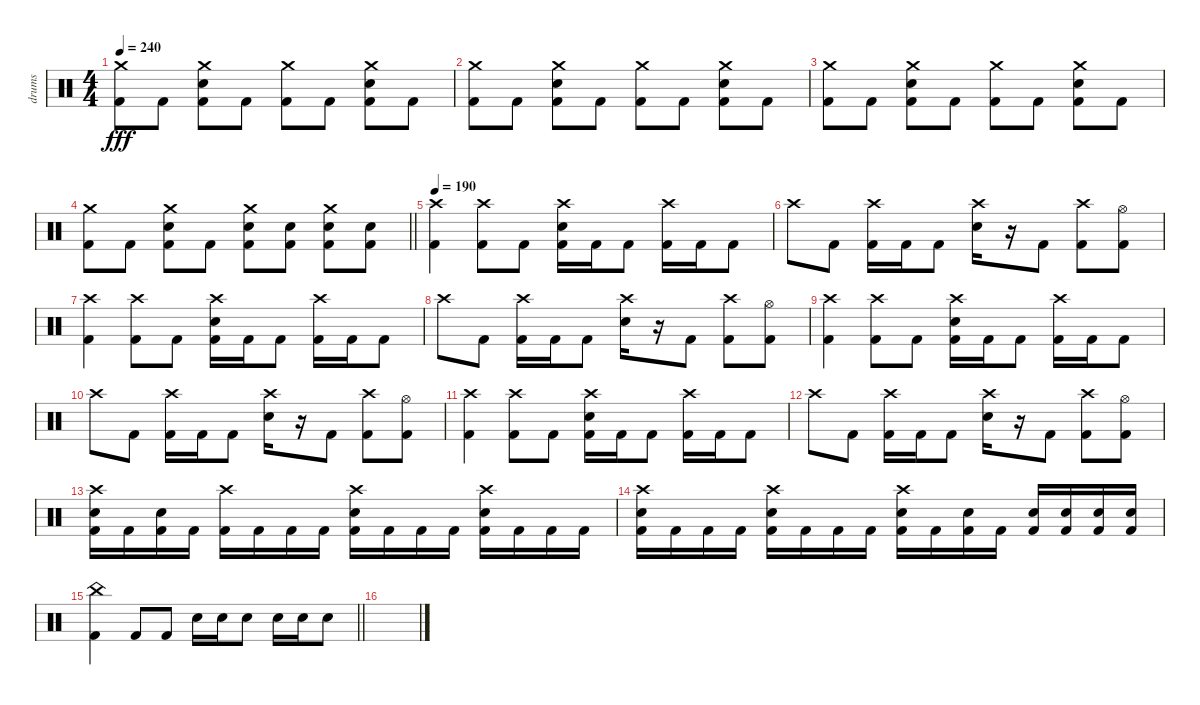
\track ("drums" "drums") {instrument percussion}
\staff {score}
\articulation defaults
\ts (4 4)
\tempo 240
\clef neutral
\ks c
("Crash medium (hit)" "Kick (hit) 2").8{dy fff} "Kick (hit) 2".8 ("Crash medium (hit)" "Electric Snare (hit)" "Kick (hit) 2").8 "Kick (hit) 2".8 ("Crash medium (hit)" "Kick (hit) 2").8 "Kick (hit) 2".8 ("Crash medium (hit)" "Electric Snare (hit)" "Kick (hit) 2").8 "Kick (hit) 2".8 |
("Crash medium (hit)" "Kick (hit) 2").8 "Kick (hit) 2".8 ("Crash medium (hit)" "Electric Snare (hit)" "Kick (hit) 2").8 "Kick (hit) 2".8 ("Crash medium (hit)" "Kick (hit) 2").8 "Kick (hit) 2".8 ("Crash medium (hit)" "Electric Snare (hit)" "Kick (hit) 2").8 "Kick (hit) 2".8 |
("Crash medium (hit)" "Kick (hit) 2").8 "Kick (hit) 2".8 ("Crash medium (hit)" "Electric Snare (hit)" "Kick (hit) 2").8 "Kick (hit) 2".8 ("Crash medium (hit)" "Kick (hit) 2").8 "Kick (hit) 2".8 ("Crash medium (hit)" "Electric Snare (hit)" "Kick (hit) 2").8 "Kick (hit) 2".8 |
\barLineRight lightlight
("Crash medium (hit)" "Kick (hit) 2").8 "Kick (hit) 2".8 ("Crash medium (hit)" "Electric Snare (hit)" "Kick (hit) 2").8 "Kick (hit) 2".8 ("Crash medium (hit)" "Electric Snare (hit)" "Kick (hit) 2").8 ("Electric Snare (hit)" "Kick (hit) 2").8 ("Crash medium (hit)" "Electric Snare (hit)" "Kick (hit) 2").8 ("Electric Snare (hit)" "Kick (hit) 2").8 |
\section ("" "")
\tempo 190
("Crash high (hit)" "Kick (hit) 2").4 ("Crash high (hit)" "Kick (hit) 2").8 "Kick (hit) 2".8 ("Crash high (hit)" "Electric Snare (hit)" "Kick (hit) 2").16 "Kick (hit) 2".16 "Kick (hit) 2".8 ("Crash high (hit)" "Kick (hit) 2").16 "Kick (hit) 2".16 "Kick (hit) 2".8 |
"Crash high (hit)".8 "Kick (hit) 2".8 ("Crash high (hit)" "Kick (hit) 2").16 "Kick (hit) 2".16 "Kick (hit) 2".8 ("Crash high (hit)" "Electric Snare (hit)").16 r.16 "Kick (hit) 2".8 ("Crash high (hit)" "Kick (hit) 2").8 ("Hi-Hat (open)" "Kick (hit) 2").8 |
("Crash high (hit)" "Kick (hit) 2").4 ("Crash high (hit)" "Kick (hit) 2").8 "Kick (hit) 2".8 ("Crash high (hit)" "Electric Snare (hit)" "Kick (hit) 2").16 "Kick (hit) 2".16 "Kick (hit) 2".8 ("Crash high (hit)" "Kick (hit) 2").16 "Kick (hit) 2".16 "Kick (hit) 2".8 |
"Crash high (hit)".8 "Kick (hit) 2".8 ("Crash high (hit)" "Kick (hit) 2").16 "Kick (hit) 2".16 "Kick (hit) 2".8 ("Crash high (hit)" "Electric Snare (hit)").16 r.16 "Kick (hit) 2".8 ("Crash high (hit)" "Kick (hit) 2").8 ("Hi-Hat (open)" "Kick (hit) 2").8 |
("Crash high (hit)" "Kick (hit) 2").4 ("Crash high (hit)" "Kick (hit) 2").8 "Kick (hit) 2".8 ("Crash high (hit)" "Electric Snare (hit)" "Kick (hit) 2").16 "Kick (hit) 2".16 "Kick (hit) 2".8 ("Crash high (hit)" "Kick (hit) 2").16 "Kick (hit) 2".16 "Kick (hit) 2".8 |
"Crash high (hit)".8 "Kick (hit) 2".8 ("Crash high (hit)" "Kick (hit) 2").16 "Kick (hit) 2".16 "Kick (hit) 2".8 ("Crash high (hit)" "Electric Snare (hit)").16 r.16 "Kick (hit) 2".8 ("Crash high (hit)" "Kick (hit) 2").8 ("Hi-Hat (open)" "Kick (hit) 2").8 |
("Crash high (hit)" "Kick (hit) 2").4 ("Crash high (hit)" "Kick (hit) 2").8 "Kick (hit) 2".8 ("Crash high (hit)" "Electric Snare (hit)" "Kick (hit) 2").16 "Kick (hit) 2".16 "Kick (hit) 2".8 ("Crash high (hit)" "Kick (hit) 2").16 "Kick (hit) 2".16 "Kick (hit) 2".8 |
"Crash high (hit)".8 "Kick (hit) 2".8 ("Crash high (hit)" "Kick (hit) 2").16 "Kick (hit) 2".16 "Kick (hit) 2".8 ("Crash high (hit)" "Electric Snare (hit)").16 r.16 "Kick (hit) 2".8 ("Crash high (hit)" "Kick (hit) 2").8 ("Hi-Hat (open)" "Kick (hit) 2").8 |
("Crash high (hit)" "Electric Snare (hit)" "Kick (hit) 2").16 "Kick (hit) 2".16 ("Electric Snare (hit)" "Kick (hit) 2").16 "Kick (hit) 2".16 ("Crash high (hit)" "Kick (hit) 2").16 "Kick (hit) 2".16 "Kick (hit) 2".16 "Kick (hit) 2".16 ("Crash high (hit)" "Electric Snare (hit)" "Kick (hit) 2").16 "Kick (hit) 2".16 "Kick (hit) 2".16 "Kick (hit) 2".16 ("Crash high (hit)" "Electric Snare (hit)" "Kick (hit) 2").16 "Kick (hit) 2".16 "Kick (hit) 2".16 "Kick (hit) 2".16 |
("Crash high (hit)" "Electric Snare (hit)" "Kick (hit) 2").16 "Kick (hit) 2".16 "Kick (hit) 2".16 "Kick (hit) 2".16 ("Crash high (hit)" "Electric Snare (hit)" "Kick (hit) 2").16 "Kick (hit) 2".16 "Kick (hit) 2".16 "Kick (hit) 2".16 ("Crash high (hit)" "Electric Snare (hit)" "Kick (hit) 2").16 "Kick (hit) 2".16 ("Electric Snare (hit)" "Kick (hit) 2").16 "Kick (hit) 2".16 ("Electric Snare (hit)" "Kick (hit) 2").16 ("Electric Snare (hit)" "Kick (hit) 2").16 ("Electric Snare (hit)" "Kick (hit) 2").16 ("Electric Snare (hit)" "Kick (hit) 2").16 |
\barLineRight lightlight
("China (hit)" "Kick (hit) 2").4 "Kick (hit) 2".8 "Kick (hit) 2".8 "Electric Snare (hit)".16 "Electric Snare (hit)".16 "Electric Snare (hit)".8 "Electric Snare (hit)".16 "Electric Snare (hit)".16 "Electric Snare (hit)".8 |
\section ("" "")
